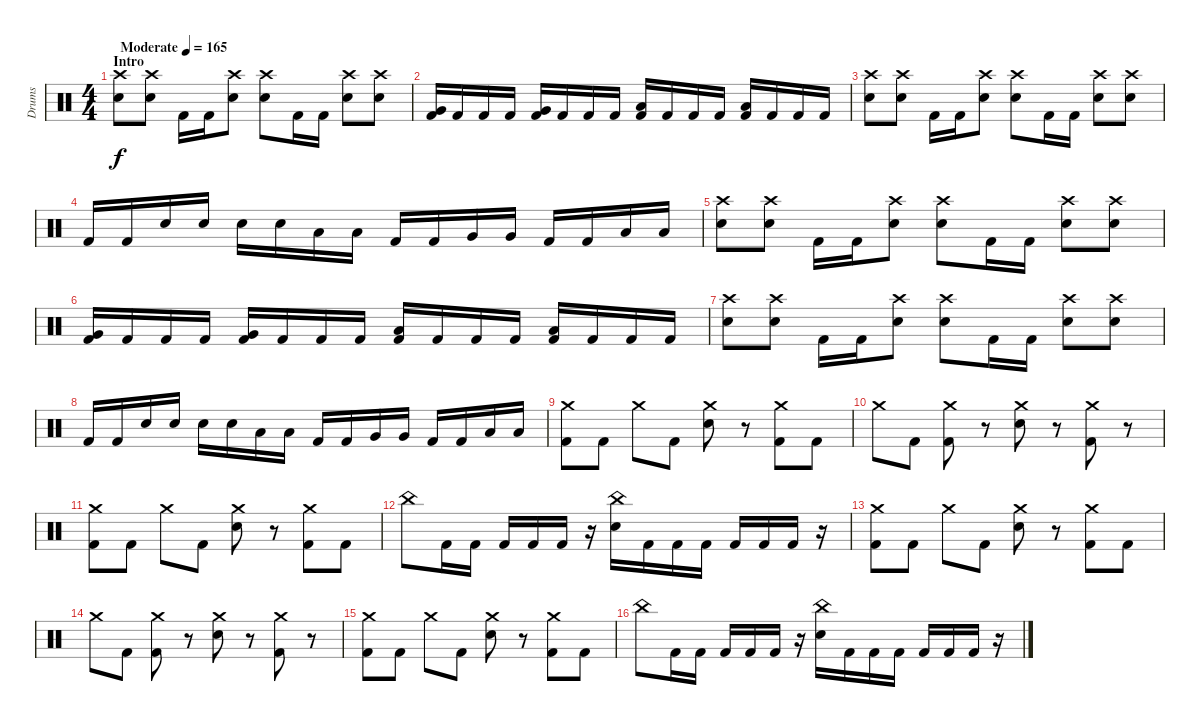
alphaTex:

\track ("Drums" "Drums") {instrument percussion}
\staff {score}
\articulation defaults
\ts (4 4)
\section ("" "Intro")
\tempo (165 "Moderate")
\clef neutral
\ks c
("Crash high (hit)" "Electric Snare (hit)").8{dy f} ("Crash high (hit)" "Electric Snare (hit)").8 "Kick (hit) 2".16 "Kick (hit) 2".16 ("Crash high (hit)" "Electric Snare (hit)").8 ("Crash high (hit)" "Electric Snare (hit)").8 "Kick (hit) 2".16 "Kick (hit) 2".16 ("Crash high (hit)" "Electric Snare (hit)").8 ("Crash high (hit)" "Electric Snare (hit)").8 |
("Very Low Tom (hit)" "Kick (hit) 2").16 "Kick (hit) 2".16 "Kick (hit) 2".16 "Kick (hit) 2".16 ("Very Low Tom (hit)" "Kick (hit) 2").16 "Kick (hit) 2".16 "Kick (hit) 2".16 "Kick (hit) 2".16 ("Low Floor Tom (hit)" "Kick (hit) 2").16 "Kick (hit) 2".16 "Kick (hit) 2".16 "Kick (hit) 2".16 ("Low Floor Tom (hit)" "Kick (hit) 2").16 "Kick (hit) 2".16 "Kick (hit) 2".16 "Kick (hit) 2".16 |
("Crash high (hit)" "Electric Snare (hit)").8 ("Crash high (hit)" "Electric Snare (hit)").8 "Kick (hit) 2".16 "Kick (hit) 2".16 ("Crash high (hit)" "Electric Snare (hit)").8 ("Crash high (hit)" "Electric Snare (hit)").8 "Kick (hit) 2".16 "Kick (hit) 2".16 ("Crash high (hit)" "Electric Snare (hit)").8 ("Crash high (hit)" "Electric Snare (hit)").8 |
"Kick (hit) 2".16 "Kick (hit) 2".16 "Electric Snare (hit)".16 "Electric Snare (hit)".16 "Electric Snare (hit)".16 "Electric Snare (hit)".16 "Low Tom (hit)".16 "Low Tom (hit)".16 "Kick (hit) 2".16 "Kick (hit) 2".16 "Very Low Tom (hit)".16 "Very Low Tom (hit)".16 "Kick (hit) 2".16 "Kick (hit) 2".16 "Low Floor Tom (hit)".16 "Low Floor Tom (hit)".16 |
("Crash high (hit)" "Electric Snare (hit)").8 ("Crash high (hit)" "Electric Snare (hit)").8 "Kick (hit) 2".16 "Kick (hit) 2".16 ("Crash high (hit)" "Electric Snare (hit)").8 ("Crash high (hit)" "Electric Snare (hit)").8 "Kick (hit) 2".16 "Kick (hit) 2".16 ("Crash high (hit)" "Electric Snare (hit)").8 ("Crash high (hit)" "Electric Snare (hit)").8 |
("Very Low Tom (hit)" "Kick (hit) 2").16 "Kick (hit) 2".16 "Kick (hit) 2".16 "Kick (hit) 2".16 ("Very Low Tom (hit)" "Kick (hit) 2").16 "Kick (hit) 2".16 "Kick (hit) 2".16 "Kick (hit) 2".16 ("Low Floor Tom (hit)" "Kick (hit) 2").16 "Kick (hit) 2".16 "Kick (hit) 2".16 "Kick (hit) 2".16 ("Low Floor Tom (hit)" "Kick (hit) 2").16 "Kick (hit) 2".16 "Kick (hit) 2".16 "Kick (hit) 2".16 |
("Crash high (hit)" "Electric Snare (hit)").8 ("Crash high (hit)" "Electric Snare (hit)").8 "Kick (hit) 2".16 "Kick (hit) 2".16 ("Crash high (hit)" "Electric Snare (hit)").8 ("Crash high (hit)" "Electric Snare (hit)").8 "Kick (hit) 2".16 "Kick (hit) 2".16 ("Crash high (hit)" "Electric Snare (hit)").8 ("Crash high (hit)" "Electric Snare (hit)").8 |
"Kick (hit) 2".16 "Kick (hit) 2".16 "Electric Snare (hit)".16 "Electric Snare (hit)".16 "Electric Snare (hit)".16 "Electric Snare (hit)".16 "Low Tom (hit)".16 "Low Tom (hit)".16 "Kick (hit) 2".16 "Kick (hit) 2".16 "Very Low Tom (hit)".16 "Very Low Tom (hit)".16 "Kick (hit) 2".16 "Kick (hit) 2".16 "Low Floor Tom (hit)".16 "Low Floor Tom (hit)".16 |
("Crash medium (hit)" "Kick (hit) 2").8 "Kick (hit) 2".8 "Crash medium (hit)".8 "Kick (hit) 2".8 ("Crash medium (hit)" "Electric Snare (hit)").8 r.8 ("Crash medium (hit)" "Kick (hit) 2").8 "Kick (hit) 2".8 |
"Crash medium (hit)".8 "Kick (hit) 2".8 ("Crash medium (hit)" "Kick (hit) 2").8 r.8 ("Crash medium (hit)" "Electric Snare (hit)").8 r.8 ("Crash medium (hit)" "Kick (hit) 2").8 r.8 |
("Crash medium (hit)" "Kick (hit) 2").8 "Kick (hit) 2".8 "Crash medium (hit)".8 "Kick (hit) 2".8 ("Crash medium (hit)" "Electric Snare (hit)").8 r.8 ("Crash medium (hit)" "Kick (hit) 2").8 "Kick (hit) 2".8 |
"China (hit)".8 "Kick (hit) 2".16 "Kick (hit) 2".16 "Kick (hit) 2".16 "Kick (hit) 2".16 "Kick (hit) 2".16 r.16 ("China (hit)" "Electric Snare (hit)").16 "Kick (hit) 2".16 "Kick (hit) 2".16 "Kick (hit) 2".16 "Kick (hit) 2".16 "Kick (hit) 2".16 "Kick (hit) 2".16 r.16 |
("Crash medium (hit)" "Kick (hit) 2").8 "Kick (hit) 2".8 "Crash medium (hit)".8 "Kick (hit) 2".8 ("Crash medium (hit)" "Electric Snare (hit)").8 r.8 ("Crash medium (hit)" "Kick (hit) 2").8 "Kick (hit) 2".8 |
"Crash medium (hit)".8 "Kick (hit) 2".8 ("Crash medium (hit)" "Kick (hit) 2").8 r.8 ("Crash medium (hit)" "Electric Snare (hit)").8 r.8 ("Crash medium (hit)" "Kick (hit) 2").8 r.8 |
("Crash medium (hit)" "Kick (hit) 2").8 "Kick (hit) 2".8 "Crash medium (hit)".8 "Kick (hit) 2".8 ("Crash medium (hit)" "Electric Snare (hit)").8 r.8 ("Crash medium (hit)" "Kick (hit) 2").8 "Kick (hit) 2".8 |
"China (hit)".8 "Kick (hit) 2".16 "Kick (hit) 2".16 "Kick (hit) 2".16 "Kick (hit) 2".16 "Kick (hit) 2".16 r.16 ("China (hit)" "Electric Snare (hit)").16 "Kick (hit) 2".16 "Kick (hit) 2".16 "Kick (hit) 2".16 "Kick (hit) 2".16 "Kick (hit) 2".16 "Kick (hit) 2".16 r.16
